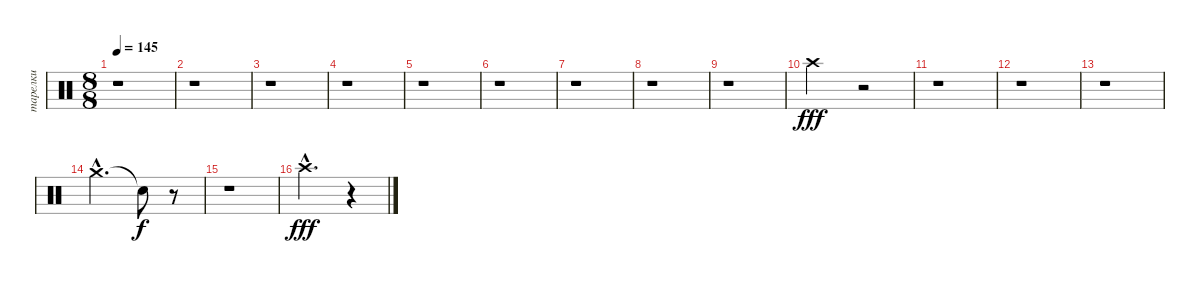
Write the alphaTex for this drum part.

\track ("тарелки" "тарелки") {instrument percussion}
\staff {score}
\articulation defaults
\ts (8 8)
\tempo 145
\clef neutral
\ks c
r.1{dy fff} |
r.1 |
r.1 |
r.1 |
r.1 |
r.1 |
r.1 |
r.1 |
r.1 |
"Crash high (hit)".2 r.2 |
r.1 |
r.1 |
r.1 |
"Crash medium (hit)"{hac}.2{d} "Snare (hit)"{t}.8{dy f} r.8 |
r.1 |
"Crash high (hit)"{hac}.2{d dy fff} r.4
